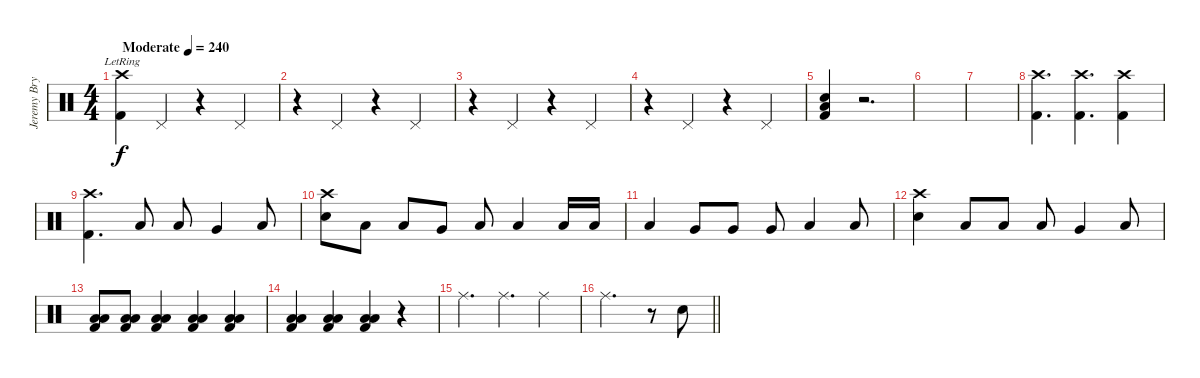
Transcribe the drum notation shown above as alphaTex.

\track ("Jeremy Bryan - Drums" "Jeremy Bry") {instrument percussion}
\staff {score}
\articulation defaults
\ts (4 4)
\tempo (240 "Moderate")
\clef neutral
\ks c
("Crash high (hit)"{lr} "Kick (hit) 2").4{dy f} "Pedal Hi-Hat (hit)".4 r.4 "Pedal Hi-Hat (hit)".4 |
r.4 "Pedal Hi-Hat (hit)".4 r.4 "Pedal Hi-Hat (hit)".4 |
r.4 "Pedal Hi-Hat (hit)".4 r.4 "Pedal Hi-Hat (hit)".4 |
r.4 "Pedal Hi-Hat (hit)".4 r.4 "Pedal Hi-Hat (hit)".4 |
("Electric Snare (hit)" "Low Floor Tom (hit)" "Kick (hit) 2").4 r.2{d} |
|
|
("Crash high (hit)" "Kick (hit) 2").4{d} ("Crash high (hit)" "Kick (hit) 2").4{d} ("Crash high (hit)" "Kick (hit) 2").4 |
("Crash high (hit)" "Kick (hit) 2").4{d} "Low Tom (hit)".8 "Low Tom (hit)".8 "Very Low Tom (hit)".4 "Low Floor Tom (hit)".8 |
("Crash high (hit)" "Electric Snare (hit)").8 "Low Tom (hit)".8 "Low Tom (hit)".8 "Very Low Tom (hit)".8 "Low Floor Tom (hit)".8 "Low Floor Tom (hit)".4 "Low Floor Tom (hit)".16 "Low Floor Tom (hit)".16 |
"Low Tom (hit)".4 "Very Low Tom (hit)".8 "Very Low Tom (hit)".8 "Very Low Tom (hit)".8 "Low Floor Tom (hit)".4 "Low Floor Tom (hit)".8 |
("Crash high (hit)" "Electric Snare (hit)").4 "Low Tom (hit)".8 "Low Tom (hit)".8 "Low Tom (hit)".8 "Very Low Tom (hit)".4 "Low Floor Tom (hit)".8 |
("Low Tom (hit)" "Low Floor Tom (hit)" "Kick (hit) 2").8 ("Low Tom (hit)" "Low Floor Tom (hit)" "Kick (hit) 2").8 ("Low Tom (hit)" "Low Floor Tom (hit)" "Kick (hit) 2").4 ("Low Tom (hit)" "Low Floor Tom (hit)" "Kick (hit) 2").4 ("Low Tom (hit)" "Low Floor Tom (hit)" "Kick (hit) 2").4 |
("Low Tom (hit)" "Low Floor Tom (hit)" "Kick (hit) 2").4 ("Low Tom (hit)" "Low Floor Tom (hit)" "Kick (hit) 2").4 ("Low Tom (hit)" "Low Floor Tom (hit)" "Kick (hit) 2").4 r.4 |
"Ride (middle)".4{d} "Ride (middle)".4{d} "Ride (middle)".4 |
\barLineRight lightlight "Ride (middle)".2{d}
r.8 "Electric Snare (hit)".8
